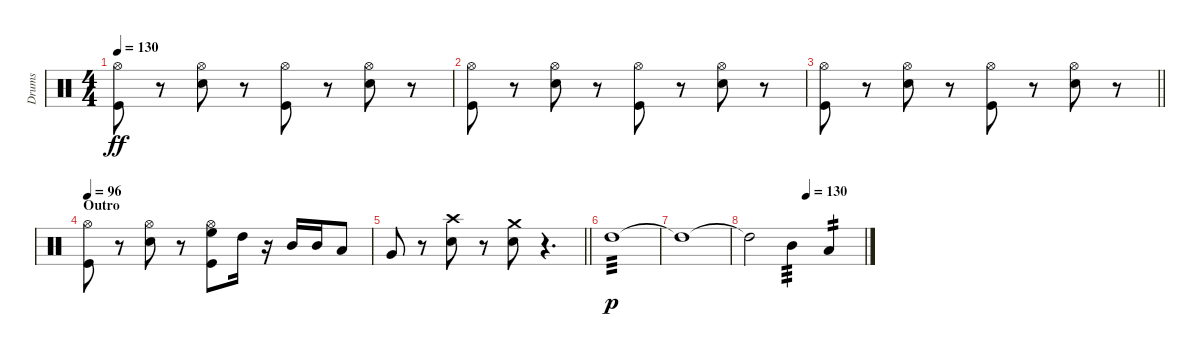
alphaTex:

\track ("Drums" "Drums") {instrument percussion}
\staff {score}
\articulation defaults
\ts (4 4)
\tempo 130
\clef neutral
\ks c
("Hi-Hat (open)" "Kick (hit)").8{dy ff} r.8 ("Hi-Hat (open)" "Electric Snare (hit)").8 r.8 ("Hi-Hat (open)" "Kick (hit)").8 r.8 ("Hi-Hat (open)" "Electric Snare (hit)").8 r.8 |
("Hi-Hat (open)" "Kick (hit)").8 r.8 ("Hi-Hat (open)" "Electric Snare (hit)").8 r.8 ("Hi-Hat (open)" "Kick (hit)").8 r.8 ("Hi-Hat (open)" "Electric Snare (hit)").8 r.8 |
\barLineRight lightlight
("Hi-Hat (open)" "Kick (hit)").8 r.8 ("Hi-Hat (open)" "Electric Snare (hit)").8 r.8 ("Hi-Hat (open)" "Kick (hit)").8 r.8 ("Hi-Hat (open)" "Electric Snare (hit)").8 r.8 |
\section ("" "Outro")
\tempo 96
("Hi-Hat (open)" "Kick (hit)").8 r.8 ("Hi-Hat (open)" "Electric Snare (hit)").8 r.8 ("Hi-Hat (open)" "High Floor Tom (hit)" "Kick (hit)").8 "High Tom (hit)".16 r.16 "Mid Tom (hit)".16 "Mid Tom (hit)".16 "Low Tom (hit)".8 |
\barLineRight lightlight "Very Low Tom (hit)".8
r.8 ("Crash high (hit)" "Electric Snare (hit)").8 r.8 ("Crash medium (hit)" "Electric Snare (hit)").8 r.4{d} |
"High Tom (hit)".1{tp 3 dy p} |
"High Tom (hit)"{t}.1 |
\tempo (130 0.5)
"High Tom (hit)"{t}.2 "Mid Tom (hit)".4{tp 3} "Low Tom (hit)".4{tp 2}
